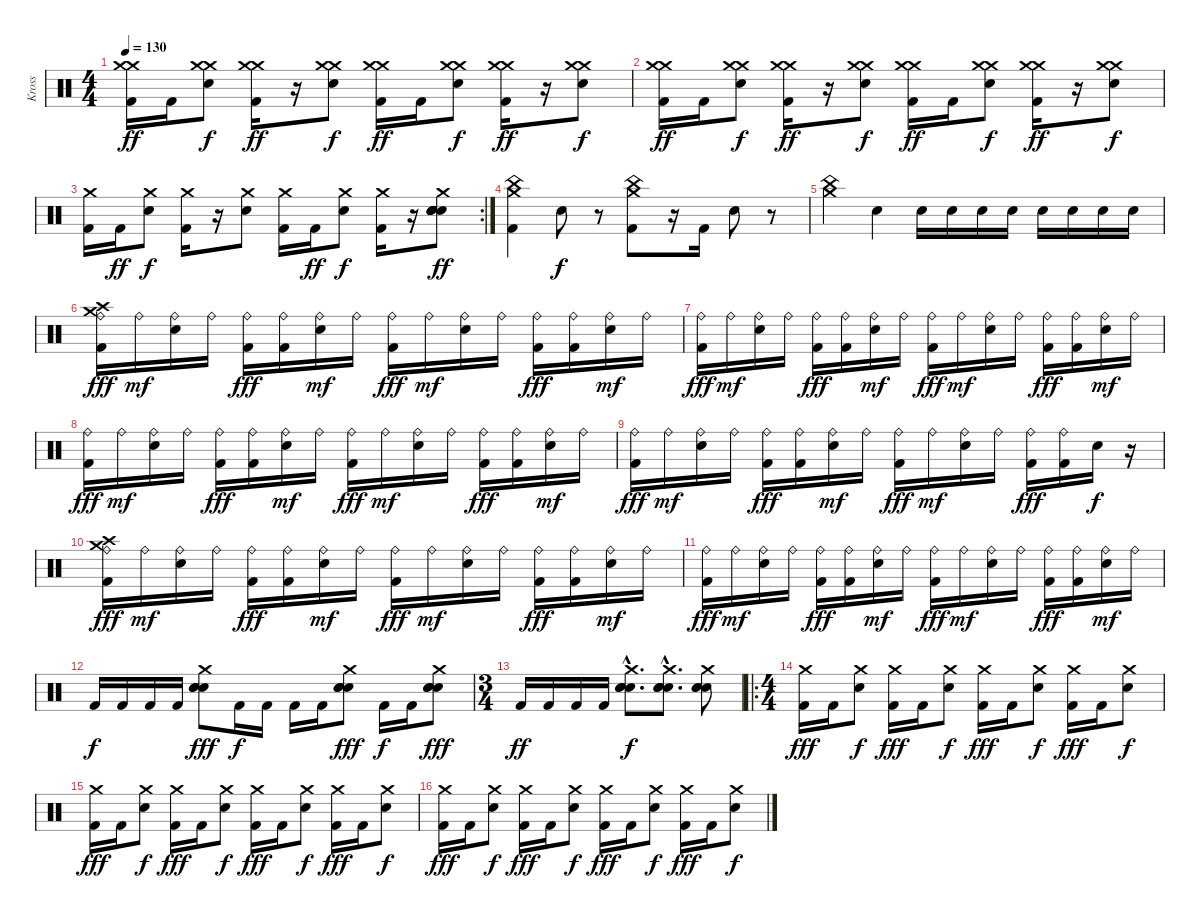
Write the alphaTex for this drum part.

\track ("Kross" "Kross") {instrument percussion}
\staff {score}
\articulation defaults
\ts (4 4)
\tempo 130
\clef neutral
\ks c
("Kick (hit) 2" "Crash medium (hit)" "Crash medium (hit)").16{dy ff} "Kick (hit) 2".16 ("Crash medium (hit)" "Crash medium (hit)" "Electric Snare (hit)").8{dy f} ("Kick (hit) 2" "Crash medium (hit)" "Crash medium (hit)").16{dy ff} r.16 ("Crash medium (hit)" "Crash medium (hit)" "Electric Snare (hit)").8{dy f} ("Kick (hit) 2" "Crash medium (hit)" "Crash medium (hit)").16{dy ff} "Kick (hit) 2".16 ("Crash medium (hit)" "Crash medium (hit)" "Electric Snare (hit)").8{dy f} ("Kick (hit) 2" "Crash medium (hit)" "Crash medium (hit)").16{dy ff} r.16 ("Crash medium (hit)" "Crash medium (hit)" "Electric Snare (hit)").8{dy f} |
("Kick (hit) 2" "Crash medium (hit)" "Crash medium (hit)").16{dy ff} "Kick (hit) 2".16 ("Crash medium (hit)" "Crash medium (hit)" "Electric Snare (hit)").8{dy f} ("Kick (hit) 2" "Crash medium (hit)" "Crash medium (hit)").16{dy ff} r.16 ("Crash medium (hit)" "Crash medium (hit)" "Electric Snare (hit)").8{dy f} ("Kick (hit) 2" "Crash medium (hit)" "Crash medium (hit)").16{dy ff} "Kick (hit) 2".16 ("Crash medium (hit)" "Crash medium (hit)" "Electric Snare (hit)").8{dy f} ("Kick (hit) 2" "Crash medium (hit)" "Crash medium (hit)").16{dy ff} r.16 ("Crash medium (hit)" "Crash medium (hit)" "Electric Snare (hit)").8{dy f} |
\rc 2
("Kick (hit) 2" "Crash medium (hit)").16 "Kick (hit) 2".16{dy ff} ("Crash medium (hit)" "Electric Snare (hit)").8{dy f} ("Kick (hit) 2" "Crash medium (hit)").16 r.16 ("Crash medium (hit)" "Electric Snare (hit)").8 ("Kick (hit) 2" "Crash medium (hit)").16 "Kick (hit) 2".16{dy ff} ("Crash medium (hit)" "Electric Snare (hit)").8{dy f} ("Kick (hit) 2" "Crash medium (hit)").16 r.16 ("Electric Snare (hit)" "Electric Snare (hit)" "Electric Snare (hit)" "Electric Snare (hit)" "Crash medium (hit)" "Electric Snare (hit)").8{dy ff} |
("Kick (hit) 2" "China (hit)" "Crash medium (hit)").4 "Electric Snare (hit)".8{dy f} r.8 ("Crash medium (hit)" "China (hit)" "Kick (hit) 2").8 r.16 "Kick (hit) 2".16 "Electric Snare (hit)".8 r.8 |
("China (hit)" "Crash medium (hit)").4 "Electric Snare (hit)".4 "Electric Snare (hit)".16 "Electric Snare (hit)".16 "Electric Snare (hit)".16 "Electric Snare (hit)".16 "Electric Snare (hit)".16 "Electric Snare (hit)".16 "Electric Snare (hit)".16 "Electric Snare (hit)".16 |
("Crash high (hit)" "Crash medium (hit)" "Ride (bell)" "Kick (hit) 2").16{dy fff} "Ride (bell)".16{dy mf} ("Ride (bell)" "Electric Snare (hit)").16 "Ride (bell)".16 ("Ride (bell)" "Kick (hit) 2").16{dy fff} ("Ride (bell)" "Kick (hit) 2").16 ("Ride (bell)" "Electric Snare (hit)").16{dy mf} "Ride (bell)".16 ("Ride (bell)" "Kick (hit) 2").16{dy fff} "Ride (bell)".16{dy mf} ("Ride (bell)" "Electric Snare (hit)").16 "Ride (bell)".16 ("Ride (bell)" "Kick (hit) 2").16{dy fff} ("Ride (bell)" "Kick (hit) 2").16 ("Ride (bell)" "Electric Snare (hit)").16{dy mf} "Ride (bell)".16 |
("Ride (bell)" "Kick (hit) 2").16{dy fff} "Ride (bell)".16{dy mf} ("Ride (bell)" "Electric Snare (hit)").16 "Ride (bell)".16 ("Ride (bell)" "Kick (hit) 2").16{dy fff} ("Ride (bell)" "Kick (hit) 2").16 ("Ride (bell)" "Electric Snare (hit)").16{dy mf} "Ride (bell)".16 ("Ride (bell)" "Kick (hit) 2").16{dy fff} "Ride (bell)".16{dy mf} ("Ride (bell)" "Electric Snare (hit)").16 "Ride (bell)".16 ("Ride (bell)" "Kick (hit) 2").16{dy fff} ("Ride (bell)" "Kick (hit) 2").16 ("Ride (bell)" "Electric Snare (hit)").16{dy mf} "Ride (bell)".16 |
("Ride (bell)" "Kick (hit) 2").16{dy fff} "Ride (bell)".16{dy mf} ("Ride (bell)" "Electric Snare (hit)").16 "Ride (bell)".16 ("Ride (bell)" "Kick (hit) 2").16{dy fff} ("Ride (bell)" "Kick (hit) 2").16 ("Ride (bell)" "Electric Snare (hit)").16{dy mf} "Ride (bell)".16 ("Ride (bell)" "Kick (hit) 2").16{dy fff} "Ride (bell)".16{dy mf} ("Ride (bell)" "Electric Snare (hit)").16 "Ride (bell)".16 ("Ride (bell)" "Kick (hit) 2").16{dy fff} ("Ride (bell)" "Kick (hit) 2").16 ("Ride (bell)" "Electric Snare (hit)").16{dy mf} "Ride (bell)".16 |
("Ride (bell)" "Kick (hit) 2").16{dy fff} "Ride (bell)".16{dy mf} ("Ride (bell)" "Electric Snare (hit)").16 "Ride (bell)".16 ("Ride (bell)" "Kick (hit) 2").16{dy fff} ("Ride (bell)" "Kick (hit) 2").16 ("Ride (bell)" "Electric Snare (hit)").16{dy mf} "Ride (bell)".16 ("Ride (bell)" "Kick (hit) 2").16{dy fff} "Ride (bell)".16{dy mf} ("Ride (bell)" "Electric Snare (hit)").16 "Ride (bell)".16 ("Ride (bell)" "Kick (hit) 2").16{dy fff} ("Ride (bell)" "Kick (hit) 2").16 "Electric Snare (hit)".16{dy f} r.16 |
("Crash high (hit)" "Crash medium (hit)" "Ride (bell)" "Kick (hit) 2").16{dy fff} "Ride (bell)".16{dy mf} ("Ride (bell)" "Electric Snare (hit)").16 "Ride (bell)".16 ("Ride (bell)" "Kick (hit) 2").16{dy fff} ("Ride (bell)" "Kick (hit) 2").16 ("Ride (bell)" "Electric Snare (hit)").16{dy mf} "Ride (bell)".16 ("Ride (bell)" "Kick (hit) 2").16{dy fff} "Ride (bell)".16{dy mf} ("Ride (bell)" "Electric Snare (hit)").16 "Ride (bell)".16 ("Ride (bell)" "Kick (hit) 2").16{dy fff} ("Ride (bell)" "Kick (hit) 2").16 ("Ride (bell)" "Electric Snare (hit)").16{dy mf} "Ride (bell)".16 |
("Ride (bell)" "Kick (hit) 2").16{dy fff} "Ride (bell)".16{dy mf} ("Ride (bell)" "Electric Snare (hit)").16 "Ride (bell)".16 ("Ride (bell)" "Kick (hit) 2").16{dy fff} ("Ride (bell)" "Kick (hit) 2").16 ("Ride (bell)" "Electric Snare (hit)").16{dy mf} "Ride (bell)".16 ("Ride (bell)" "Kick (hit) 2").16{dy fff} "Ride (bell)".16{dy mf} ("Ride (bell)" "Electric Snare (hit)").16 "Ride (bell)".16 ("Ride (bell)" "Kick (hit) 2").16{dy fff} ("Ride (bell)" "Kick (hit) 2").16 ("Ride (bell)" "Electric Snare (hit)").16{dy mf} "Ride (bell)".16 |
"Kick (hit) 2".16{dy f} "Kick (hit) 2".16 "Kick (hit) 2".16 "Kick (hit) 2".16 ("Crash medium (hit)" "Electric Snare (hit)" "Electric Snare (hit)" "Electric Snare (hit)").8{dy fff} "Kick (hit) 2".16{dy f} "Kick (hit) 2".16 "Kick (hit) 2".16 "Kick (hit) 2".16 ("Crash medium (hit)" "Electric Snare (hit)" "Electric Snare (hit)" "Electric Snare (hit)").8{dy fff} "Kick (hit) 2".16{dy f} "Kick (hit) 2".16 ("Crash medium (hit)" "Electric Snare (hit)" "Electric Snare (hit)" "Electric Snare (hit)").8{dy fff} |
\ts (3 4)
"Kick (hit) 2".16{dy ff} "Kick (hit) 2".16 "Kick (hit) 2".16 "Kick (hit) 2".16 ("Crash medium (hit)"{hac} "Electric Snare (hit)"{hac} "Electric Snare (hit)"{hac} "Electric Snare (hit)"{hac}).8{d dy f} ("Crash medium (hit)"{hac} "Electric Snare (hit)"{hac} "Electric Snare (hit)"{hac} "Electric Snare (hit)"{hac}).8{d} ("Crash medium (hit)" "Electric Snare (hit)" "Electric Snare (hit)" "Electric Snare (hit)").8 |
\ro
\ts (4 4)
("Kick (hit) 2" "Crash medium (hit)").16{dy fff} "Kick (hit) 2".16 ("Crash medium (hit)" "Electric Snare (hit)").8{dy f} ("Kick (hit) 2" "Crash medium (hit)").16{dy fff} "Kick (hit) 2".16 ("Crash medium (hit)" "Electric Snare (hit)").8{dy f} ("Kick (hit) 2" "Crash medium (hit)").16{dy fff} "Kick (hit) 2".16 ("Crash medium (hit)" "Electric Snare (hit)").8{dy f} ("Kick (hit) 2" "Crash medium (hit)").16{dy fff} "Kick (hit) 2".16 ("Crash medium (hit)" "Electric Snare (hit)").8{dy f} |
("Kick (hit) 2" "Crash medium (hit)").16{dy fff} "Kick (hit) 2".16 ("Crash medium (hit)" "Electric Snare (hit)").8{dy f} ("Kick (hit) 2" "Crash medium (hit)").16{dy fff} "Kick (hit) 2".16 ("Crash medium (hit)" "Electric Snare (hit)").8{dy f} ("Kick (hit) 2" "Crash medium (hit)").16{dy fff} "Kick (hit) 2".16 ("Crash medium (hit)" "Electric Snare (hit)").8{dy f} ("Kick (hit) 2" "Crash medium (hit)").16{dy fff} "Kick (hit) 2".16 ("Crash medium (hit)" "Electric Snare (hit)").8{dy f} |
("Kick (hit) 2" "Crash medium (hit)").16{dy fff} "Kick (hit) 2".16 ("Crash medium (hit)" "Electric Snare (hit)").8{dy f} ("Kick (hit) 2" "Crash medium (hit)").16{dy fff} "Kick (hit) 2".16 ("Crash medium (hit)" "Electric Snare (hit)").8{dy f} ("Kick (hit) 2" "Crash medium (hit)").16{dy fff} "Kick (hit) 2".16 ("Crash medium (hit)" "Electric Snare (hit)").8{dy f} ("Kick (hit) 2" "Crash medium (hit)").16{dy fff} "Kick (hit) 2".16 ("Crash medium (hit)" "Electric Snare (hit)").8{dy f}
